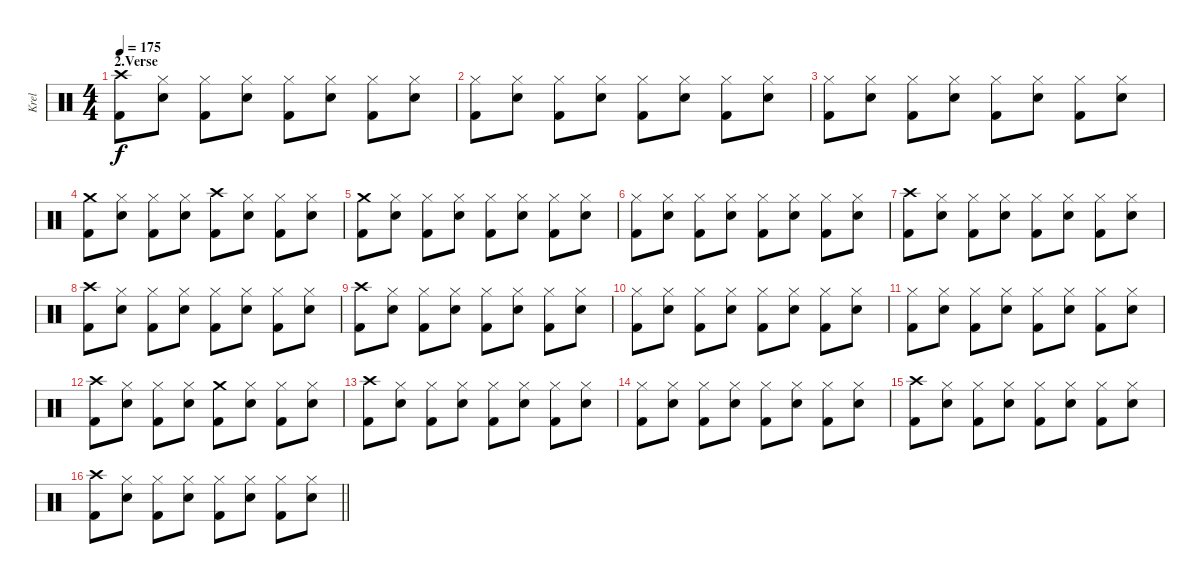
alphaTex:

\track ("Krel" "Krel") {instrument percussion}
\staff {score}
\articulation defaults
\ts (4 4)
\section ("" "2.Verse")
\tempo 175
\clef neutral
\ks c
("Crash high (hit)" "Kick (hit) 2").8{dy f} ("Hi-Hat (closed)" "Snare (hit) 2").8 ("Hi-Hat (closed)" "Kick (hit) 2").8 ("Hi-Hat (closed)" "Snare (hit) 2").8 ("Hi-Hat (closed)" "Kick (hit) 2").8 ("Hi-Hat (closed)" "Snare (hit) 2").8 ("Hi-Hat (closed)" "Kick (hit) 2").8 ("Hi-Hat (closed)" "Snare (hit) 2").8 |
("Hi-Hat (closed)" "Kick (hit) 2").8 ("Hi-Hat (closed)" "Snare (hit) 2").8 ("Hi-Hat (closed)" "Kick (hit) 2").8 ("Hi-Hat (closed)" "Snare (hit) 2").8 ("Hi-Hat (closed)" "Kick (hit) 2").8 ("Hi-Hat (closed)" "Snare (hit) 2").8 ("Hi-Hat (closed)" "Kick (hit) 2").8 ("Hi-Hat (closed)" "Snare (hit) 2").8 |
("Hi-Hat (closed)" "Kick (hit) 2").8 ("Hi-Hat (closed)" "Snare (hit) 2").8 ("Hi-Hat (closed)" "Kick (hit) 2").8 ("Hi-Hat (closed)" "Snare (hit) 2").8 ("Hi-Hat (closed)" "Kick (hit) 2").8 ("Hi-Hat (closed)" "Snare (hit) 2").8 ("Hi-Hat (closed)" "Kick (hit) 2").8 ("Hi-Hat (closed)" "Snare (hit) 2").8 |
("Crash medium (hit)" "Kick (hit) 2").8 ("Hi-Hat (closed)" "Snare (hit) 2").8 ("Hi-Hat (closed)" "Kick (hit) 2").8 ("Hi-Hat (closed)" "Snare (hit) 2").8 ("Crash high (hit)" "Kick (hit) 2").8 ("Hi-Hat (closed)" "Snare (hit) 2").8 ("Hi-Hat (closed)" "Kick (hit) 2").8 ("Hi-Hat (closed)" "Snare (hit) 2").8 |
("Crash medium (hit)" "Kick (hit) 2").8 ("Hi-Hat (closed)" "Snare (hit) 2").8 ("Hi-Hat (closed)" "Kick (hit) 2").8 ("Hi-Hat (closed)" "Snare (hit) 2").8 ("Hi-Hat (closed)" "Kick (hit) 2").8 ("Hi-Hat (closed)" "Snare (hit) 2").8 ("Hi-Hat (closed)" "Kick (hit) 2").8 ("Hi-Hat (closed)" "Snare (hit) 2").8 |
("Hi-Hat (closed)" "Kick (hit) 2").8 ("Hi-Hat (closed)" "Snare (hit) 2").8 ("Hi-Hat (closed)" "Kick (hit) 2").8 ("Hi-Hat (closed)" "Snare (hit) 2").8 ("Hi-Hat (closed)" "Kick (hit) 2").8 ("Hi-Hat (closed)" "Snare (hit) 2").8 ("Hi-Hat (closed)" "Kick (hit) 2").8 ("Hi-Hat (closed)" "Snare (hit) 2").8 |
("Crash high (hit)" "Kick (hit) 2").8 ("Hi-Hat (closed)" "Snare (hit) 2").8 ("Hi-Hat (closed)" "Kick (hit) 2").8 ("Hi-Hat (closed)" "Snare (hit) 2").8 ("Hi-Hat (closed)" "Kick (hit) 2").8 ("Hi-Hat (closed)" "Snare (hit) 2").8 ("Hi-Hat (closed)" "Kick (hit) 2").8 ("Hi-Hat (closed)" "Snare (hit) 2").8 |
("Crash high (hit)" "Kick (hit) 2").8 ("Hi-Hat (closed)" "Snare (hit) 2").8 ("Hi-Hat (closed)" "Kick (hit) 2").8 ("Hi-Hat (closed)" "Snare (hit) 2").8 ("Hi-Hat (closed)" "Kick (hit) 2").8 ("Hi-Hat (closed)" "Snare (hit) 2").8 ("Hi-Hat (closed)" "Kick (hit) 2").8 ("Hi-Hat (closed)" "Snare (hit) 2").8 |
("Crash high (hit)" "Kick (hit) 2").8 ("Hi-Hat (closed)" "Snare (hit) 2").8 ("Hi-Hat (closed)" "Kick (hit) 2").8 ("Hi-Hat (closed)" "Snare (hit) 2").8 ("Hi-Hat (closed)" "Kick (hit) 2").8 ("Hi-Hat (closed)" "Snare (hit) 2").8 ("Hi-Hat (closed)" "Kick (hit) 2").8 ("Hi-Hat (closed)" "Snare (hit) 2").8 |
("Hi-Hat (closed)" "Kick (hit) 2").8 ("Hi-Hat (closed)" "Snare (hit) 2").8 ("Hi-Hat (closed)" "Kick (hit) 2").8 ("Hi-Hat (closed)" "Snare (hit) 2").8 ("Hi-Hat (closed)" "Kick (hit) 2").8 ("Hi-Hat (closed)" "Snare (hit) 2").8 ("Hi-Hat (closed)" "Kick (hit) 2").8 ("Hi-Hat (closed)" "Snare (hit) 2").8 |
("Hi-Hat (closed)" "Kick (hit) 2").8 ("Hi-Hat (closed)" "Snare (hit) 2").8 ("Hi-Hat (closed)" "Kick (hit) 2").8 ("Hi-Hat (closed)" "Snare (hit) 2").8 ("Hi-Hat (closed)" "Kick (hit) 2").8 ("Hi-Hat (closed)" "Snare (hit) 2").8 ("Hi-Hat (closed)" "Kick (hit) 2").8 ("Hi-Hat (closed)" "Snare (hit) 2").8 |
("Crash high (hit)" "Kick (hit) 2").8 ("Hi-Hat (closed)" "Snare (hit) 2").8 ("Hi-Hat (closed)" "Kick (hit) 2").8 ("Hi-Hat (closed)" "Snare (hit) 2").8 ("Crash medium (hit)" "Kick (hit) 2").8 ("Hi-Hat (closed)" "Snare (hit) 2").8 ("Hi-Hat (closed)" "Kick (hit) 2").8 ("Hi-Hat (closed)" "Snare (hit) 2").8 |
("Crash high (hit)" "Kick (hit) 2").8 ("Hi-Hat (closed)" "Snare (hit) 2").8 ("Hi-Hat (closed)" "Kick (hit) 2").8 ("Hi-Hat (closed)" "Snare (hit) 2").8 ("Hi-Hat (closed)" "Kick (hit) 2").8 ("Hi-Hat (closed)" "Snare (hit) 2").8 ("Hi-Hat (closed)" "Kick (hit) 2").8 ("Hi-Hat (closed)" "Snare (hit) 2").8 |
("Hi-Hat (closed)" "Kick (hit) 2").8 ("Hi-Hat (closed)" "Snare (hit) 2").8 ("Hi-Hat (closed)" "Kick (hit) 2").8 ("Hi-Hat (closed)" "Snare (hit) 2").8 ("Hi-Hat (closed)" "Kick (hit) 2").8 ("Hi-Hat (closed)" "Snare (hit) 2").8 ("Hi-Hat (closed)" "Kick (hit) 2").8 ("Hi-Hat (closed)" "Snare (hit) 2").8 |
("Crash high (hit)" "Kick (hit) 2").8 ("Hi-Hat (closed)" "Snare (hit) 2").8 ("Hi-Hat (closed)" "Kick (hit) 2").8 ("Hi-Hat (closed)" "Snare (hit) 2").8 ("Hi-Hat (closed)" "Kick (hit) 2").8 ("Hi-Hat (closed)" "Snare (hit) 2").8 ("Hi-Hat (closed)" "Kick (hit) 2").8 ("Hi-Hat (closed)" "Snare (hit) 2").8 |
\barLineRight lightlight
("Crash high (hit)" "Kick (hit) 2").8 ("Hi-Hat (closed)" "Snare (hit) 2").8 ("Hi-Hat (closed)" "Kick (hit) 2").8 ("Hi-Hat (closed)" "Snare (hit) 2").8 ("Hi-Hat (closed)" "Kick (hit) 2").8 ("Hi-Hat (closed)" "Snare (hit) 2").8 ("Hi-Hat (closed)" "Kick (hit) 2").8 ("Hi-Hat (closed)" "Snare (hit) 2").8
